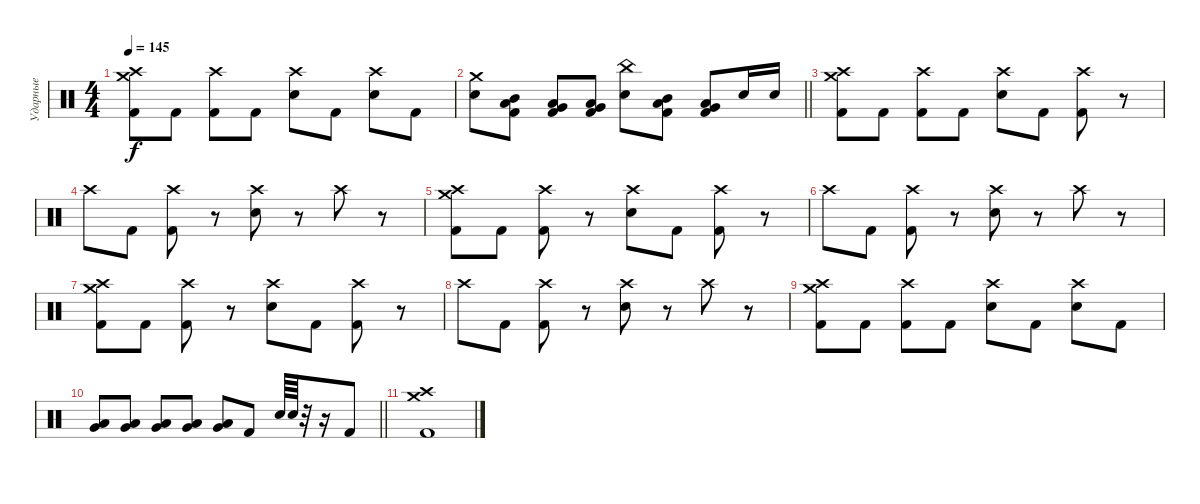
\track ("Ударные" "Ударные") {instrument percussion}
\staff {score}
\articulation defaults
\ts (4 4)
\tempo 145
\clef neutral
\ks c
("Crash medium (hit)" "Crash high (hit)" "Kick (hit) 2").8{dy f} "Kick (hit) 2".8 ("Crash high (hit)" "Kick (hit) 2").8 "Kick (hit) 2".8 ("Crash high (hit)" "Electric Snare (hit)").8 "Kick (hit) 2".8 ("Crash high (hit)" "Electric Snare (hit)").8 "Kick (hit) 2".8 |
\barLineRight lightlight
("Crash medium (hit)" "Electric Snare (hit)").8 ("Mid Tom (hit)" "Low Tom (hit)" "Kick (hit) 2").8 ("Low Tom (hit)" "Very Low Tom (hit)" "Kick (hit) 2").8 ("Very Low Tom (hit)" "Low Floor Tom (hit)" "Kick (hit) 2").8 ("China (hit)" "Electric Snare (hit)").8 ("Mid Tom (hit)" "Low Tom (hit)" "Kick (hit) 2").8 ("Low Tom (hit)" "Very Low Tom (hit)" "Kick (hit) 2").8 "Electric Snare (hit)".16 "Electric Snare (hit)".16 |
("Crash medium (hit)" "Crash high (hit)" "Kick (hit) 2").8 "Kick (hit) 2".8 ("Crash high (hit)" "Kick (hit) 2").8 "Kick (hit) 2".8 ("Crash high (hit)" "Electric Snare (hit)").8 "Kick (hit) 2".8 ("Crash high (hit)" "Kick (hit) 2").8 r.8 |
"Crash high (hit)".8 "Kick (hit) 2".8 ("Crash high (hit)" "Kick (hit) 2").8 r.8 ("Crash high (hit)" "Electric Snare (hit)").8 r.8 "Crash high (hit)".8 r.8 |
("Crash medium (hit)" "Crash high (hit)" "Kick (hit) 2").8 "Kick (hit) 2".8 ("Crash high (hit)" "Kick (hit) 2").8 r.8 ("Crash high (hit)" "Electric Snare (hit)").8 "Kick (hit) 2".8 ("Crash high (hit)" "Kick (hit) 2").8 r.8 |
"Crash high (hit)".8 "Kick (hit) 2".8 ("Crash high (hit)" "Kick (hit) 2").8 r.8 ("Crash high (hit)" "Electric Snare (hit)").8 r.8 "Crash high (hit)".8 r.8 |
("Crash medium (hit)" "Crash high (hit)" "Kick (hit) 2").8 "Kick (hit) 2".8 ("Crash high (hit)" "Kick (hit) 2").8 r.8 ("Crash high (hit)" "Electric Snare (hit)").8 "Kick (hit) 2".8 ("Crash high (hit)" "Kick (hit) 2").8 r.8 |
"Crash high (hit)".8 "Kick (hit) 2".8 ("Crash high (hit)" "Kick (hit) 2").8 r.8 ("Crash high (hit)" "Electric Snare (hit)").8 r.8 "Crash high (hit)".8 r.8 |
("Crash medium (hit)" "Crash high (hit)" "Kick (hit) 2").8 "Kick (hit) 2".8 ("Crash high (hit)" "Kick (hit) 2").8 "Kick (hit) 2".8 ("Crash high (hit)" "Electric Snare (hit)").8 "Kick (hit) 2".8 ("Crash high (hit)" "Electric Snare (hit)").8 "Kick (hit) 2".8 |
\barLineRight lightlight
("Very Low Tom (hit)" "Low Floor Tom (hit)").8 ("Very Low Tom (hit)" "Low Floor Tom (hit)").8 ("Very Low Tom (hit)" "Low Floor Tom (hit)").8 ("Very Low Tom (hit)" "Low Floor Tom (hit)").8 ("Very Low Tom (hit)" "Low Floor Tom (hit)").8 "Kick (hit) 2".8 "Electric Snare (hit)".64 "Electric Snare (hit)".64 r.32 r.16 "Kick (hit) 2".8 |
("Crash medium (hit)" "Crash high (hit)" "Kick (hit) 2").1
